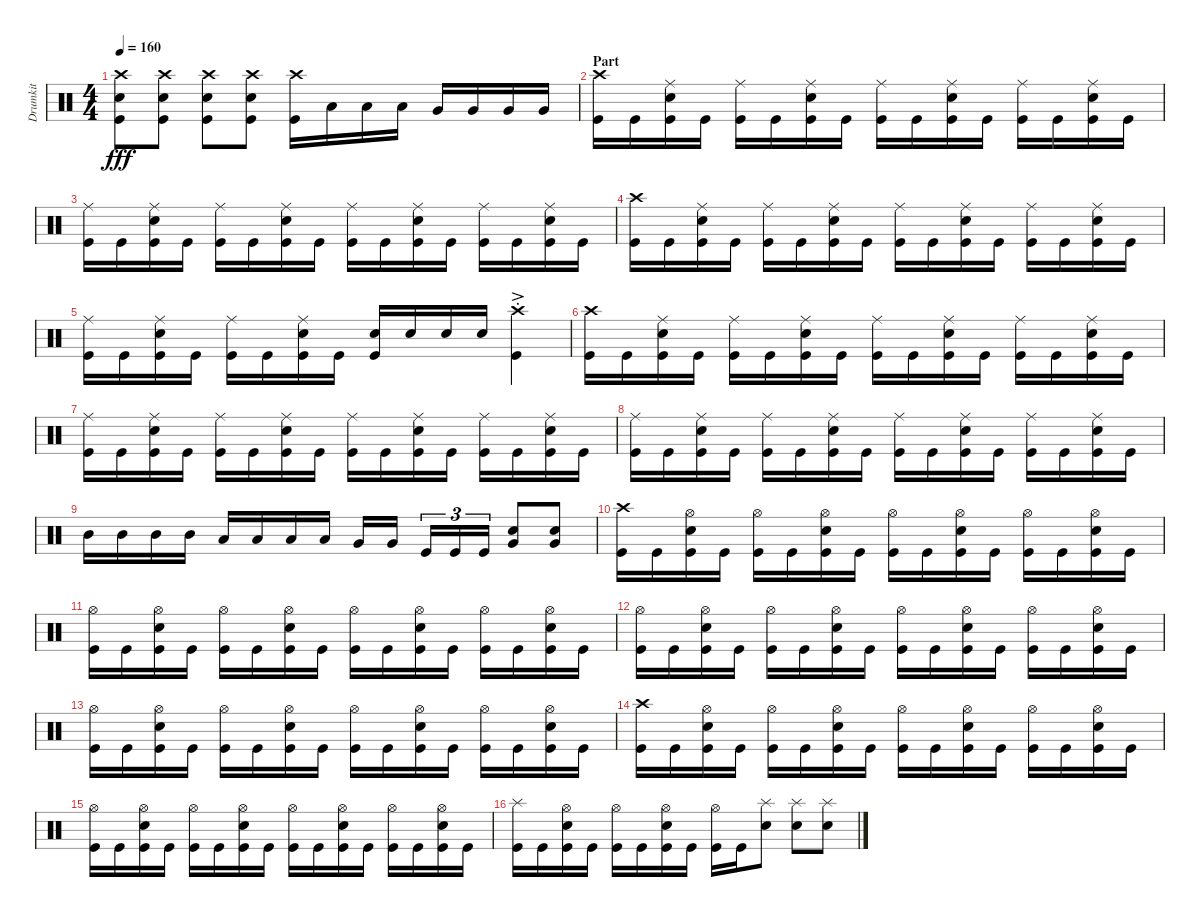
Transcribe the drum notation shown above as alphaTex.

\track ("Drumkit" "Drumkit") {instrument percussion}
\staff {score}
\articulation defaults
\ts (4 4)
\tempo 160
\clef neutral
\ks c
("Kick (hit)" "Snare (hit) 2" "Crash high (hit)").8{dy fff} ("Kick (hit)" "Snare (hit) 2" "Crash high (hit)").8 ("Kick (hit)" "Snare (hit) 2" "Crash high (hit)").8 ("Kick (hit)" "Snare (hit) 2" "Crash high (hit)").8 ("Kick (hit)" "Crash high (hit)").16 "Low Tom (hit)".16 "Low Tom (hit)".16 "Low Tom (hit)".16 "Very Low Tom (hit)".16 "Very Low Tom (hit)".16 "Very Low Tom (hit)".16 "Very Low Tom (hit)".16 |
\section ("" "Part")
("Kick (hit)" "Crash high (hit)").16 "Kick (hit)".16 ("Kick (hit)" "Snare (hit) 2" "Ride (middle)").16 "Kick (hit)".16 ("Kick (hit)" "Ride (middle)").16 "Kick (hit)".16 ("Kick (hit)" "Snare (hit) 2" "Ride (middle)").16 "Kick (hit)".16 ("Kick (hit)" "Ride (middle)").16 "Kick (hit)".16 ("Kick (hit)" "Snare (hit) 2" "Ride (middle)").16 "Kick (hit)".16 ("Kick (hit)" "Ride (middle)").16 "Kick (hit)".16 ("Kick (hit)" "Snare (hit) 2" "Ride (middle)").16 "Kick (hit)".16 |
("Kick (hit)" "Ride (middle)").16 "Kick (hit)".16 ("Kick (hit)" "Snare (hit) 2" "Ride (middle)").16 "Kick (hit)".16 ("Kick (hit)" "Ride (middle)").16 "Kick (hit)".16 ("Kick (hit)" "Snare (hit) 2" "Ride (middle)").16 "Kick (hit)".16 ("Kick (hit)" "Ride (middle)").16 "Kick (hit)".16 ("Kick (hit)" "Snare (hit) 2" "Ride (middle)").16 "Kick (hit)".16 ("Kick (hit)" "Ride (middle)").16 "Kick (hit)".16 ("Kick (hit)" "Snare (hit) 2" "Ride (middle)").16 "Kick (hit)".16 |
("Kick (hit)" "Crash high (hit)").16 "Kick (hit)".16 ("Kick (hit)" "Snare (hit) 2" "Ride (middle)").16 "Kick (hit)".16 ("Kick (hit)" "Ride (middle)").16 "Kick (hit)".16 ("Kick (hit)" "Snare (hit) 2" "Ride (middle)").16 "Kick (hit)".16 ("Kick (hit)" "Ride (middle)").16 "Kick (hit)".16 ("Kick (hit)" "Snare (hit) 2" "Ride (middle)").16 "Kick (hit)".16 ("Kick (hit)" "Ride (middle)").16 "Kick (hit)".16 ("Kick (hit)" "Snare (hit) 2" "Ride (middle)").16 "Kick (hit)".16 |
("Kick (hit)" "Ride (middle)").16 "Kick (hit)".16 ("Kick (hit)" "Snare (hit) 2" "Ride (middle)").16 "Kick (hit)".16 ("Kick (hit)" "Ride (middle)").16 "Kick (hit)".16 ("Kick (hit)" "Snare (hit) 2" "Ride (middle)").16 "Kick (hit)".16 ("Kick (hit)" "Snare (hit) 2").16 "Snare (hit) 2".16 "Snare (hit) 2".16 "Snare (hit) 2".16 ("Kick (hit)" "Crash high (hit)"{ac st}).4 |
("Kick (hit)" "Crash high (hit)").16 "Kick (hit)".16 ("Kick (hit)" "Snare (hit) 2" "Ride (middle)").16 "Kick (hit)".16 ("Kick (hit)" "Ride (middle)").16 "Kick (hit)".16 ("Kick (hit)" "Snare (hit) 2" "Ride (middle)").16 "Kick (hit)".16 ("Kick (hit)" "Ride (middle)").16 "Kick (hit)".16 ("Kick (hit)" "Snare (hit) 2" "Ride (middle)").16 "Kick (hit)".16 ("Kick (hit)" "Ride (middle)").16 "Kick (hit)".16 ("Kick (hit)" "Snare (hit) 2" "Ride (middle)").16 "Kick (hit)".16 |
("Kick (hit)" "Ride (middle)").16 "Kick (hit)".16 ("Kick (hit)" "Snare (hit) 2" "Ride (middle)").16 "Kick (hit)".16 ("Kick (hit)" "Ride (middle)").16 "Kick (hit)".16 ("Kick (hit)" "Snare (hit) 2" "Ride (middle)").16 "Kick (hit)".16 ("Kick (hit)" "Ride (middle)").16 "Kick (hit)".16 ("Kick (hit)" "Snare (hit) 2" "Ride (middle)").16 "Kick (hit)".16 ("Kick (hit)" "Ride (middle)").16 "Kick (hit)".16 ("Kick (hit)" "Snare (hit) 2" "Ride (middle)").16 "Kick (hit)".16 |
("Kick (hit)" "Ride (middle)").16 "Kick (hit)".16 ("Kick (hit)" "Snare (hit) 2" "Ride (middle)").16 "Kick (hit)".16 ("Kick (hit)" "Ride (middle)").16 "Kick (hit)".16 ("Kick (hit)" "Snare (hit) 2" "Ride (middle)").16 "Kick (hit)".16 ("Kick (hit)" "Ride (middle)").16 "Kick (hit)".16 ("Kick (hit)" "Snare (hit) 2" "Ride (middle)").16 "Kick (hit)".16 ("Kick (hit)" "Ride (middle)").16 "Kick (hit)".16 ("Kick (hit)" "Snare (hit) 2" "Ride (middle)").16 "Kick (hit)".16 |
"Mid Tom (hit)".16 "Mid Tom (hit)".16 "Mid Tom (hit)".16 "Mid Tom (hit)".16 "Low Tom (hit)".16 "Low Tom (hit)".16 "Low Tom (hit)".16 "Low Tom (hit)".16 "Very Low Tom (hit)".16 "Very Low Tom (hit)".16 "Kick (hit)".16{tu (3 2)} "Kick (hit)".16{tu (3 2)} "Kick (hit)".16{tu (3 2)} ("Very Low Tom (hit)" "Snare (hit) 2").8 ("Very Low Tom (hit)" "Snare (hit) 2").8 |
("Kick (hit)" "Crash high (hit)").16 "Kick (hit)".16 ("Kick (hit)" "Snare (hit) 2" "Hi-Hat (open)").16 "Kick (hit)".16 ("Kick (hit)" "Hi-Hat (open)").16 "Kick (hit)".16 ("Kick (hit)" "Snare (hit) 2" "Hi-Hat (open)").16 "Kick (hit)".16 ("Kick (hit)" "Hi-Hat (open)").16 "Kick (hit)".16 ("Kick (hit)" "Snare (hit) 2" "Hi-Hat (open)").16 "Kick (hit)".16 ("Kick (hit)" "Hi-Hat (open)").16 "Kick (hit)".16 ("Kick (hit)" "Snare (hit) 2" "Hi-Hat (open)").16 "Kick (hit)".16 |
("Kick (hit)" "Hi-Hat (open)").16 "Kick (hit)".16 ("Kick (hit)" "Snare (hit) 2" "Hi-Hat (open)").16 "Kick (hit)".16 ("Kick (hit)" "Hi-Hat (open)").16 "Kick (hit)".16 ("Kick (hit)" "Snare (hit) 2" "Hi-Hat (open)").16 "Kick (hit)".16 ("Kick (hit)" "Hi-Hat (open)").16 "Kick (hit)".16 ("Kick (hit)" "Snare (hit) 2" "Hi-Hat (open)").16 "Kick (hit)".16 ("Kick (hit)" "Hi-Hat (open)").16 "Kick (hit)".16 ("Kick (hit)" "Snare (hit) 2" "Hi-Hat (open)").16 "Kick (hit)".16 |
("Kick (hit)" "Hi-Hat (open)").16 "Kick (hit)".16 ("Kick (hit)" "Snare (hit) 2" "Hi-Hat (open)").16 "Kick (hit)".16 ("Kick (hit)" "Hi-Hat (open)").16 "Kick (hit)".16 ("Kick (hit)" "Snare (hit) 2" "Hi-Hat (open)").16 "Kick (hit)".16 ("Kick (hit)" "Hi-Hat (open)").16 "Kick (hit)".16 ("Kick (hit)" "Snare (hit) 2" "Hi-Hat (open)").16 "Kick (hit)".16 ("Kick (hit)" "Hi-Hat (open)").16 "Kick (hit)".16 ("Kick (hit)" "Snare (hit) 2" "Hi-Hat (open)").16 "Kick (hit)".16 |
("Kick (hit)" "Hi-Hat (open)").16 "Kick (hit)".16 ("Kick (hit)" "Snare (hit) 2" "Hi-Hat (open)").16 "Kick (hit)".16 ("Kick (hit)" "Hi-Hat (open)").16 "Kick (hit)".16 ("Kick (hit)" "Snare (hit) 2" "Hi-Hat (open)").16 "Kick (hit)".16 ("Kick (hit)" "Hi-Hat (open)").16 "Kick (hit)".16 ("Kick (hit)" "Snare (hit) 2" "Hi-Hat (open)").16 "Kick (hit)".16 ("Kick (hit)" "Hi-Hat (open)").16 "Kick (hit)".16 ("Kick (hit)" "Snare (hit) 2" "Hi-Hat (open)").16 "Kick (hit)".16 |
("Kick (hit)" "Crash high (hit)").16 "Kick (hit)".16 ("Kick (hit)" "Snare (hit) 2" "Hi-Hat (open)").16 "Kick (hit)".16 ("Kick (hit)" "Hi-Hat (open)").16 "Kick (hit)".16 ("Kick (hit)" "Snare (hit) 2" "Hi-Hat (open)").16 "Kick (hit)".16 ("Kick (hit)" "Hi-Hat (open)").16 "Kick (hit)".16 ("Kick (hit)" "Snare (hit) 2" "Hi-Hat (open)").16 "Kick (hit)".16 ("Kick (hit)" "Hi-Hat (open)").16 "Kick (hit)".16 ("Kick (hit)" "Snare (hit) 2" "Hi-Hat (open)").16 "Kick (hit)".16 |
("Kick (hit)" "Hi-Hat (open)").16 "Kick (hit)".16 ("Kick (hit)" "Snare (hit) 2" "Hi-Hat (open)").16 "Kick (hit)".16 ("Kick (hit)" "Hi-Hat (open)").16 "Kick (hit)".16 ("Kick (hit)" "Snare (hit) 2" "Hi-Hat (open)").16 "Kick (hit)".16 ("Kick (hit)" "Hi-Hat (open)").16 "Kick (hit)".16 ("Kick (hit)" "Snare (hit) 2" "Hi-Hat (open)").16 "Kick (hit)".16 ("Kick (hit)" "Hi-Hat (open)").16 "Kick (hit)".16 ("Kick (hit)" "Snare (hit) 2" "Hi-Hat (open)").16 "Kick (hit)".16 |
("Kick (hit)" "Splash (hit)").16 "Kick (hit)".16 ("Kick (hit)" "Snare (hit) 2" "Hi-Hat (open)").16 "Kick (hit)".16 ("Kick (hit)" "Hi-Hat (open)").16 "Kick (hit)".16 ("Kick (hit)" "Snare (hit) 2" "Hi-Hat (open)").16 "Kick (hit)".16 ("Kick (hit)" "Hi-Hat (open)").16 "Kick (hit)".16 ("Snare (hit) 2" "Splash (hit)").8 ("Snare (hit) 2" "Splash (hit)").8 ("Snare (hit) 2" "Splash (hit)").8
